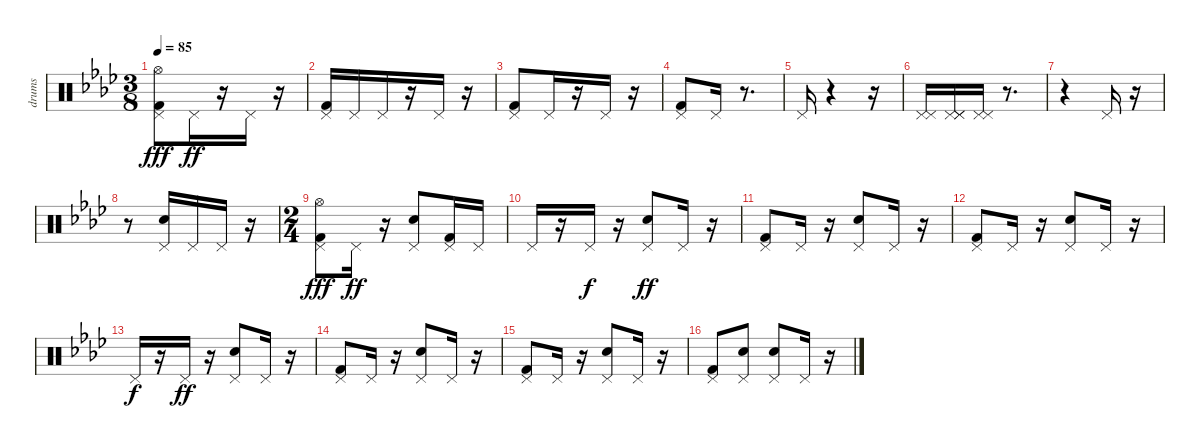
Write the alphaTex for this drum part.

\track ("drums" "drums") {instrument percussion}
\staff {score}
\articulation defaults
\ts (3 8)
\tempo 85
\clef neutral
\ks fminor
("Pedal Hi-Hat (hit)" "Kick (hit) 2" "Hi-Hat (open)").8{dy fff} "Pedal Hi-Hat (hit)".16{dy ff} r.16 "Pedal Hi-Hat (hit)".16 r.16 |
("Pedal Hi-Hat (hit)" "Kick (hit) 2").16 "Pedal Hi-Hat (hit)".16 "Pedal Hi-Hat (hit)".16 r.16 "Pedal Hi-Hat (hit)".16 r.16 |
("Kick (hit) 2" "Pedal Hi-Hat (hit)").8 "Pedal Hi-Hat (hit)".16 r.16 "Pedal Hi-Hat (hit)".16 r.16 |
("Kick (hit) 2" "Pedal Hi-Hat (hit)").8 "Pedal Hi-Hat (hit)".16 r.8{d} |
"Pedal Hi-Hat (hit)".16 r.4 r.16 |
("Pedal Hi-Hat (hit)" "Pedal Hi-Hat (hit)").16 ("Pedal Hi-Hat (hit)" "Pedal Hi-Hat (hit)" "Pedal Hi-Hat (hit)").16 ("Pedal Hi-Hat (hit)" "Pedal Hi-Hat (hit)").16 r.8{d} |
r.4 "Pedal Hi-Hat (hit)".16 r.16 |
r.8 ("Electric Snare (hit)" "Pedal Hi-Hat (hit)").16 "Pedal Hi-Hat (hit)".16 "Pedal Hi-Hat (hit)".16 r.16 |
\ts (2 4)
("Pedal Hi-Hat (hit)" "Kick (hit) 2" "Hi-Hat (open)").8{dy fff} "Pedal Hi-Hat (hit)".16{dy ff} r.16 ("Pedal Hi-Hat (hit)" "Electric Snare (hit)").8 ("Pedal Hi-Hat (hit)" "Kick (hit) 2").16 "Pedal Hi-Hat (hit)".16 |
"Pedal Hi-Hat (hit)".16 r.16 "Pedal Hi-Hat (hit)".16{dy f} r.16 ("Pedal Hi-Hat (hit)" "Electric Snare (hit)").8{dy ff} "Pedal Hi-Hat (hit)".16 r.16 |
("Kick (hit) 2" "Pedal Hi-Hat (hit)").8 "Pedal Hi-Hat (hit)".16 r.16 ("Electric Snare (hit)" "Pedal Hi-Hat (hit)").8 "Pedal Hi-Hat (hit)".16 r.16 |
("Kick (hit) 2" "Pedal Hi-Hat (hit)").8 "Pedal Hi-Hat (hit)".16 r.16 ("Electric Snare (hit)" "Pedal Hi-Hat (hit)").8 "Pedal Hi-Hat (hit)".16 r.16 |
"Pedal Hi-Hat (hit)".16{dy f} r.16 "Pedal Hi-Hat (hit)".16{dy ff} r.16 ("Electric Snare (hit)" "Pedal Hi-Hat (hit)").8 "Pedal Hi-Hat (hit)".16 r.16 |
("Kick (hit) 2" "Pedal Hi-Hat (hit)").8 "Pedal Hi-Hat (hit)".16 r.16 ("Pedal Hi-Hat (hit)" "Electric Snare (hit)").8 "Pedal Hi-Hat (hit)".16 r.16 |
("Pedal Hi-Hat (hit)" "Kick (hit) 2").8 "Pedal Hi-Hat (hit)".16 r.16 ("Pedal Hi-Hat (hit)" "Electric Snare (hit)").8 "Pedal Hi-Hat (hit)".16 r.16 |
("Pedal Hi-Hat (hit)" "Kick (hit) 2").8 ("Pedal Hi-Hat (hit)" "Electric Snare (hit)").8 ("Electric Snare (hit)" "Pedal Hi-Hat (hit)").8 "Pedal Hi-Hat (hit)".16 r.16
